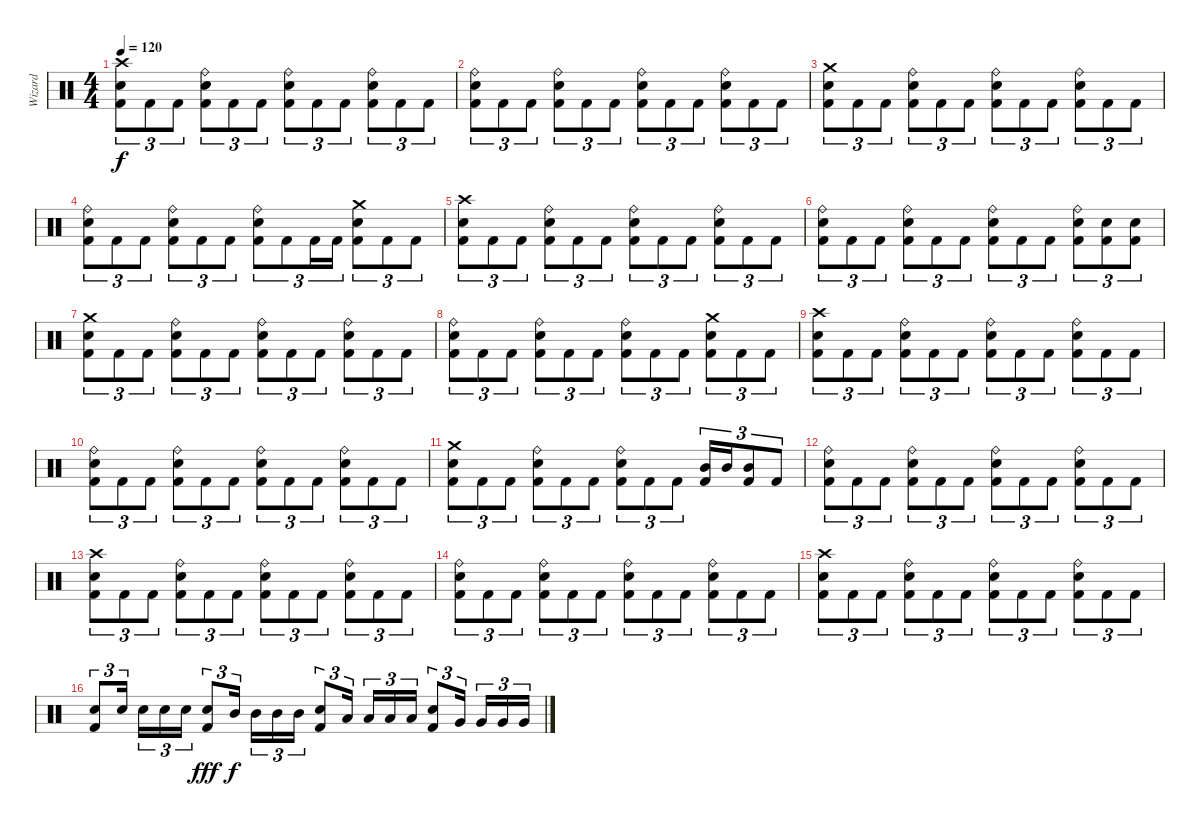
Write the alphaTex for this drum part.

\track ("Wizard" "Wizard") {instrument percussion}
\staff {score}
\articulation defaults
\ts (4 4)
\tempo 120
\clef neutral
\ks c
("Crash high (hit)" "Snare (hit) 2" "Kick (hit) 2").8{tu (3 2) dy f} "Kick (hit) 2".8{tu (3 2)} "Kick (hit) 2".8{tu (3 2)} ("Ride (bell)" "Snare (hit) 2" "Kick (hit) 2").8{tu (3 2)} "Kick (hit) 2".8{tu (3 2)} "Kick (hit) 2".8{tu (3 2)} ("Ride (bell)" "Snare (hit) 2" "Kick (hit) 2").8{tu (3 2)} "Kick (hit) 2".8{tu (3 2)} "Kick (hit) 2".8{tu (3 2)} ("Ride (bell)" "Snare (hit) 2" "Kick (hit) 2").8{tu (3 2)} "Kick (hit) 2".8{tu (3 2)} "Kick (hit) 2".8{tu (3 2)} |
("Ride (bell)" "Snare (hit) 2" "Kick (hit) 2").8{tu (3 2)} "Kick (hit) 2".8{tu (3 2)} "Kick (hit) 2".8{tu (3 2)} ("Ride (bell)" "Snare (hit) 2" "Kick (hit) 2").8{tu (3 2)} "Kick (hit) 2".8{tu (3 2)} "Kick (hit) 2".8{tu (3 2)} ("Ride (bell)" "Snare (hit) 2" "Kick (hit) 2").8{tu (3 2)} "Kick (hit) 2".8{tu (3 2)} "Kick (hit) 2".8{tu (3 2)} ("Ride (bell)" "Snare (hit) 2" "Kick (hit) 2").8{tu (3 2)} "Kick (hit) 2".8{tu (3 2)} "Kick (hit) 2".8{tu (3 2)} |
("Crash medium (hit)" "Snare (hit) 2" "Kick (hit) 2").8{tu (3 2)} "Kick (hit) 2".8{tu (3 2)} "Kick (hit) 2".8{tu (3 2)} ("Ride (bell)" "Snare (hit) 2" "Kick (hit) 2").8{tu (3 2)} "Kick (hit) 2".8{tu (3 2)} "Kick (hit) 2".8{tu (3 2)} ("Ride (bell)" "Snare (hit) 2" "Kick (hit) 2").8{tu (3 2)} "Kick (hit) 2".8{tu (3 2)} "Kick (hit) 2".8{tu (3 2)} ("Ride (bell)" "Snare (hit) 2" "Kick (hit) 2").8{tu (3 2)} "Kick (hit) 2".8{tu (3 2)} "Kick (hit) 2".8{tu (3 2)} |
("Ride (bell)" "Snare (hit) 2" "Kick (hit) 2").8{tu (3 2)} "Kick (hit) 2".8{tu (3 2)} "Kick (hit) 2".8{tu (3 2)} ("Ride (bell)" "Snare (hit) 2" "Kick (hit) 2").8{tu (3 2)} "Kick (hit) 2".8{tu (3 2)} "Kick (hit) 2".8{tu (3 2)} ("Ride (bell)" "Snare (hit) 2" "Kick (hit) 2").8{tu (3 2)} "Kick (hit) 2".8{tu (3 2)} "Kick (hit) 2".16{tu (3 2)} "Kick (hit) 2".16{tu (3 2)} ("Crash medium (hit)" "Snare (hit) 2" "Kick (hit) 2").8{tu (3 2)} "Kick (hit) 2".8{tu (3 2)} "Kick (hit) 2".8{tu (3 2)} |
("Crash high (hit)" "Snare (hit) 2" "Kick (hit) 2").8{tu (3 2)} "Kick (hit) 2".8{tu (3 2)} "Kick (hit) 2".8{tu (3 2)} ("Ride (bell)" "Snare (hit) 2" "Kick (hit) 2").8{tu (3 2)} "Kick (hit) 2".8{tu (3 2)} "Kick (hit) 2".8{tu (3 2)} ("Ride (bell)" "Snare (hit) 2" "Kick (hit) 2").8{tu (3 2)} "Kick (hit) 2".8{tu (3 2)} "Kick (hit) 2".8{tu (3 2)} ("Ride (bell)" "Snare (hit) 2" "Kick (hit) 2").8{tu (3 2)} "Kick (hit) 2".8{tu (3 2)} "Kick (hit) 2".8{tu (3 2)} |
("Ride (bell)" "Snare (hit) 2" "Kick (hit) 2").8{tu (3 2)} "Kick (hit) 2".8{tu (3 2)} "Kick (hit) 2".8{tu (3 2)} ("Ride (bell)" "Snare (hit) 2" "Kick (hit) 2").8{tu (3 2)} "Kick (hit) 2".8{tu (3 2)} "Kick (hit) 2".8{tu (3 2)} ("Ride (bell)" "Snare (hit) 2" "Kick (hit) 2").8{tu (3 2)} "Kick (hit) 2".8{tu (3 2)} "Kick (hit) 2".8{tu (3 2)} ("Ride (bell)" "Snare (hit) 2" "Kick (hit) 2").8{tu (3 2)} ("Snare (hit) 2" "Kick (hit) 2").8{tu (3 2)} ("Snare (hit) 2" "Kick (hit) 2").8{tu (3 2)} |
("Crash medium (hit)" "Snare (hit) 2" "Kick (hit) 2").8{tu (3 2)} "Kick (hit) 2".8{tu (3 2)} "Kick (hit) 2".8{tu (3 2)} ("Ride (bell)" "Snare (hit) 2" "Kick (hit) 2").8{tu (3 2)} "Kick (hit) 2".8{tu (3 2)} "Kick (hit) 2".8{tu (3 2)} ("Ride (bell)" "Snare (hit) 2" "Kick (hit) 2").8{tu (3 2)} "Kick (hit) 2".8{tu (3 2)} "Kick (hit) 2".8{tu (3 2)} ("Ride (bell)" "Snare (hit) 2" "Kick (hit) 2").8{tu (3 2)} "Kick (hit) 2".8{tu (3 2)} "Kick (hit) 2".8{tu (3 2)} |
("Ride (bell)" "Snare (hit) 2" "Kick (hit) 2").8{tu (3 2)} "Kick (hit) 2".8{tu (3 2)} "Kick (hit) 2".8{tu (3 2)} ("Ride (bell)" "Snare (hit) 2" "Kick (hit) 2").8{tu (3 2)} "Kick (hit) 2".8{tu (3 2)} "Kick (hit) 2".8{tu (3 2)} ("Ride (bell)" "Snare (hit) 2" "Kick (hit) 2").8{tu (3 2)} "Kick (hit) 2".8{tu (3 2)} "Kick (hit) 2".8{tu (3 2)} ("Crash medium (hit)" "Snare (hit) 2" "Kick (hit) 2").8{tu (3 2)} "Kick (hit) 2".8{tu (3 2)} "Kick (hit) 2".8{tu (3 2)} |
("Crash high (hit)" "Snare (hit) 2" "Kick (hit) 2").8{tu (3 2)} "Kick (hit) 2".8{tu (3 2)} "Kick (hit) 2".8{tu (3 2)} ("Ride (bell)" "Snare (hit) 2" "Kick (hit) 2").8{tu (3 2)} "Kick (hit) 2".8{tu (3 2)} "Kick (hit) 2".8{tu (3 2)} ("Ride (bell)" "Snare (hit) 2" "Kick (hit) 2").8{tu (3 2)} "Kick (hit) 2".8{tu (3 2)} "Kick (hit) 2".8{tu (3 2)} ("Ride (bell)" "Snare (hit) 2" "Kick (hit) 2").8{tu (3 2)} "Kick (hit) 2".8{tu (3 2)} "Kick (hit) 2".8{tu (3 2)} |
("Ride (bell)" "Snare (hit) 2" "Kick (hit) 2").8{tu (3 2)} "Kick (hit) 2".8{tu (3 2)} "Kick (hit) 2".8{tu (3 2)} ("Ride (bell)" "Snare (hit) 2" "Kick (hit) 2").8{tu (3 2)} "Kick (hit) 2".8{tu (3 2)} "Kick (hit) 2".8{tu (3 2)} ("Ride (bell)" "Snare (hit) 2" "Kick (hit) 2").8{tu (3 2)} "Kick (hit) 2".8{tu (3 2)} "Kick (hit) 2".8{tu (3 2)} ("Ride (bell)" "Snare (hit) 2" "Kick (hit) 2").8{tu (3 2)} "Kick (hit) 2".8{tu (3 2)} "Kick (hit) 2".8{tu (3 2)} |
("Crash medium (hit)" "Snare (hit) 2" "Kick (hit) 2").8{tu (3 2)} "Kick (hit) 2".8{tu (3 2)} "Kick (hit) 2".8{tu (3 2)} ("Ride (bell)" "Snare (hit) 2" "Kick (hit) 2").8{tu (3 2)} "Kick (hit) 2".8{tu (3 2)} "Kick (hit) 2".8{tu (3 2)} ("Ride (bell)" "Snare (hit) 2" "Kick (hit) 2").8{tu (3 2)} "Kick (hit) 2".8{tu (3 2)} "Kick (hit) 2".8{tu (3 2)} ("Mid Tom (hit)" "Kick (hit) 2").16{tu (3 2)} "Mid Tom (hit)".16{tu (3 2)} ("Mid Tom (hit)" "Kick (hit) 2").8{tu (3 2)} "Kick (hit) 2".8{tu (3 2)} |
("Ride (bell)" "Snare (hit) 2" "Kick (hit) 2").8{tu (3 2)} "Kick (hit) 2".8{tu (3 2)} "Kick (hit) 2".8{tu (3 2)} ("Ride (bell)" "Snare (hit) 2" "Kick (hit) 2").8{tu (3 2)} "Kick (hit) 2".8{tu (3 2)} "Kick (hit) 2".8{tu (3 2)} ("Ride (bell)" "Snare (hit) 2" "Kick (hit) 2").8{tu (3 2)} "Kick (hit) 2".8{tu (3 2)} "Kick (hit) 2".8{tu (3 2)} ("Ride (bell)" "Snare (hit) 2" "Kick (hit) 2").8{tu (3 2)} "Kick (hit) 2".8{tu (3 2)} "Kick (hit) 2".8{tu (3 2)} |
("Crash high (hit)" "Snare (hit) 2" "Kick (hit) 2").8{tu (3 2)} "Kick (hit) 2".8{tu (3 2)} "Kick (hit) 2".8{tu (3 2)} ("Ride (bell)" "Snare (hit) 2" "Kick (hit) 2").8{tu (3 2)} "Kick (hit) 2".8{tu (3 2)} "Kick (hit) 2".8{tu (3 2)} ("Ride (bell)" "Snare (hit) 2" "Kick (hit) 2").8{tu (3 2)} "Kick (hit) 2".8{tu (3 2)} "Kick (hit) 2".8{tu (3 2)} ("Ride (bell)" "Snare (hit) 2" "Kick (hit) 2").8{tu (3 2)} "Kick (hit) 2".8{tu (3 2)} "Kick (hit) 2".8{tu (3 2)} |
("Ride (bell)" "Snare (hit) 2" "Kick (hit) 2").8{tu (3 2)} "Kick (hit) 2".8{tu (3 2)} "Kick (hit) 2".8{tu (3 2)} ("Ride (bell)" "Snare (hit) 2" "Kick (hit) 2").8{tu (3 2)} "Kick (hit) 2".8{tu (3 2)} "Kick (hit) 2".8{tu (3 2)} ("Ride (bell)" "Snare (hit) 2" "Kick (hit) 2").8{tu (3 2)} "Kick (hit) 2".8{tu (3 2)} "Kick (hit) 2".8{tu (3 2)} ("Ride (bell)" "Snare (hit) 2" "Kick (hit) 2").8{tu (3 2)} "Kick (hit) 2".8{tu (3 2)} "Kick (hit) 2".8{tu (3 2)} |
("Crash high (hit)" "Snare (hit) 2" "Kick (hit) 2").8{tu (3 2)} "Kick (hit) 2".8{tu (3 2)} "Kick (hit) 2".8{tu (3 2)} ("Ride (bell)" "Snare (hit) 2" "Kick (hit) 2").8{tu (3 2)} "Kick (hit) 2".8{tu (3 2)} "Kick (hit) 2".8{tu (3 2)} ("Ride (bell)" "Snare (hit) 2" "Kick (hit) 2").8{tu (3 2)} "Kick (hit) 2".8{tu (3 2)} "Kick (hit) 2".8{tu (3 2)} ("Ride (bell)" "Snare (hit) 2" "Kick (hit) 2").8{tu (3 2)} "Kick (hit) 2".8{tu (3 2)} "Kick (hit) 2".8{tu (3 2)} |
("Snare (hit) 2" "Kick (hit) 2").8{tu (3 2)} "Snare (hit) 2".16{tu (3 2) beam splitsecondary} "Snare (hit) 2".16{tu (3 2)} "Snare (hit) 2".16{tu (3 2)} "Snare (hit) 2".16{tu (3 2)} ("Snare (hit) 2" "Kick (hit) 2").8{tu (3 2) dy fff} "Mid Tom (hit)".16{tu (3 2) dy f beam splitsecondary} "Mid Tom (hit)".16{tu (3 2)} "Mid Tom (hit)".16{tu (3 2)} "Mid Tom (hit)".16{tu (3 2)} ("Snare (hit) 2" "Kick (hit) 2").8{tu (3 2)} "Low Tom (hit)".16{tu (3 2) beam splitsecondary} "Low Tom (hit)".16{tu (3 2)} "Low Tom (hit)".16{tu (3 2)} "Low Tom (hit)".16{tu (3 2)} ("Snare (hit) 2" "Kick (hit) 2").8{tu (3 2)} "Very Low Tom (hit)".16{tu (3 2) beam splitsecondary} "Very Low Tom (hit)".16{tu (3 2)} "Very Low Tom (hit)".16{tu (3 2)} "Very Low Tom (hit)".16{tu (3 2)}
